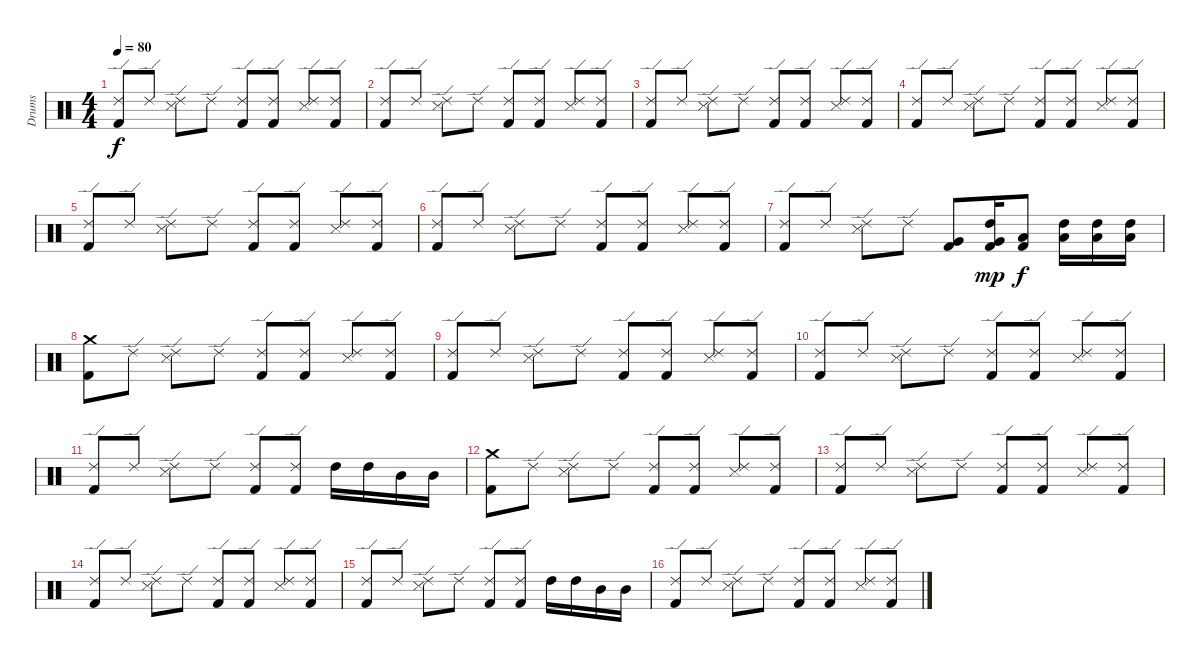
\track ("Drums" "Drums") {instrument percussion}
\staff {score}
\articulation defaults
\ts (4 4)
\tempo 80
\clef neutral
\ks c
("Ride (edge) 2" "Kick (hit) 2").8{dy f} "Ride (edge) 2".8 ("Ride (edge) 2" "Snare (side stick) 3").8 "Ride (edge) 2".8 ("Ride (edge) 2" "Kick (hit) 2").8 ("Ride (edge) 2" "Kick (hit) 2").8 ("Ride (edge) 2" "Snare (side stick) 3").8 ("Ride (edge) 2" "Kick (hit) 2").8 |
("Ride (edge) 2" "Kick (hit) 2").8 "Ride (edge) 2".8 ("Ride (edge) 2" "Snare (side stick) 3").8 "Ride (edge) 2".8 ("Ride (edge) 2" "Kick (hit) 2").8 ("Ride (edge) 2" "Kick (hit) 2").8 ("Ride (edge) 2" "Snare (side stick) 3").8 ("Ride (edge) 2" "Kick (hit) 2").8 |
("Ride (edge) 2" "Kick (hit) 2").8 "Ride (edge) 2".8 ("Ride (edge) 2" "Snare (side stick) 3").8 "Ride (edge) 2".8 ("Ride (edge) 2" "Kick (hit) 2").8 ("Ride (edge) 2" "Kick (hit) 2").8 ("Ride (edge) 2" "Snare (side stick) 3").8 ("Ride (edge) 2" "Kick (hit) 2").8 |
("Ride (edge) 2" "Kick (hit) 2").8 "Ride (edge) 2".8 ("Ride (edge) 2" "Snare (side stick) 3").8 "Ride (edge) 2".8 ("Ride (edge) 2" "Kick (hit) 2").8 ("Ride (edge) 2" "Kick (hit) 2").8 ("Ride (edge) 2" "Snare (side stick) 3").8 ("Ride (edge) 2" "Kick (hit) 2").8 |
("Ride (edge) 2" "Kick (hit) 2").8 "Ride (edge) 2".8 ("Ride (edge) 2" "Snare (side stick) 3").8 "Ride (edge) 2".8 ("Ride (edge) 2" "Kick (hit) 2").8 ("Ride (edge) 2" "Kick (hit) 2").8 ("Ride (edge) 2" "Snare (side stick) 3").8 ("Ride (edge) 2" "Kick (hit) 2").8 |
("Ride (edge) 2" "Kick (hit) 2").8 "Ride (edge) 2".8 ("Ride (edge) 2" "Snare (side stick) 3").8 "Ride (edge) 2".8 ("Ride (edge) 2" "Kick (hit) 2").8 ("Ride (edge) 2" "Kick (hit) 2").8 ("Ride (edge) 2" "Snare (side stick) 3").8 ("Ride (edge) 2" "Kick (hit) 2").8 |
("Ride (edge) 2" "Kick (hit) 2").8 "Ride (edge) 2".8 ("Ride (edge) 2" "Snare (side stick) 3").8 "Ride (edge) 2".8 ("Very Low Tom (hit)" "Kick (hit) 2").8 ("Very Low Tom (hit)" "High Tom (hit)" "Kick (hit) 2").16{dy mp} ("Low Tom (hit)" "Kick (hit) 2").8{dy f} ("Low Tom (hit)" "High Tom (hit)").16 ("Low Tom (hit)" "High Tom (hit)").16 ("Low Tom (hit)" "High Tom (hit)").16 |
("Crash medium (hit)" "Kick (hit) 2").8 "Ride (edge) 2".8 ("Ride (edge) 2" "Snare (side stick) 3").8 "Ride (edge) 2".8 ("Ride (edge) 2" "Kick (hit) 2").8 ("Ride (edge) 2" "Kick (hit) 2").8 ("Ride (edge) 2" "Snare (side stick) 3").8 ("Ride (edge) 2" "Kick (hit) 2").8 |
("Ride (edge) 2" "Kick (hit) 2").8 "Ride (edge) 2".8 ("Ride (edge) 2" "Snare (side stick) 3").8 "Ride (edge) 2".8 ("Ride (edge) 2" "Kick (hit) 2").8 ("Ride (edge) 2" "Kick (hit) 2").8 ("Ride (edge) 2" "Snare (side stick) 3").8 ("Ride (edge) 2" "Kick (hit) 2").8 |
("Ride (edge) 2" "Kick (hit) 2").8 "Ride (edge) 2".8 ("Ride (edge) 2" "Snare (side stick) 3").8 "Ride (edge) 2".8 ("Ride (edge) 2" "Kick (hit) 2").8 ("Ride (edge) 2" "Kick (hit) 2").8 ("Ride (edge) 2" "Snare (side stick) 3").8 ("Ride (edge) 2" "Kick (hit) 2").8 |
("Ride (edge) 2" "Kick (hit) 2").8 "Ride (edge) 2".8 ("Ride (edge) 2" "Snare (side stick) 3").8 "Ride (edge) 2".8 ("Ride (edge) 2" "Kick (hit) 2").8 ("Ride (edge) 2" "Kick (hit) 2").8 "High Tom (hit)".16 "High Tom (hit)".16 "Mid Tom (hit)".16 "Mid Tom (hit)".16 |
("Crash medium (hit)" "Kick (hit) 2").8 "Ride (edge) 2".8 ("Ride (edge) 2" "Snare (side stick) 3").8 "Ride (edge) 2".8 ("Ride (edge) 2" "Kick (hit) 2").8 ("Ride (edge) 2" "Kick (hit) 2").8 ("Ride (edge) 2" "Snare (side stick) 3").8 ("Ride (edge) 2" "Kick (hit) 2").8 |
("Ride (edge) 2" "Kick (hit) 2").8 "Ride (edge) 2".8 ("Ride (edge) 2" "Snare (side stick) 3").8 "Ride (edge) 2".8 ("Ride (edge) 2" "Kick (hit) 2").8 ("Ride (edge) 2" "Kick (hit) 2").8 ("Ride (edge) 2" "Snare (side stick) 3").8 ("Ride (edge) 2" "Kick (hit) 2").8 |
("Ride (edge) 2" "Kick (hit) 2").8 "Ride (edge) 2".8 ("Ride (edge) 2" "Snare (side stick) 3").8 "Ride (edge) 2".8 ("Ride (edge) 2" "Kick (hit) 2").8 ("Ride (edge) 2" "Kick (hit) 2").8 ("Ride (edge) 2" "Snare (side stick) 3").8 ("Ride (edge) 2" "Kick (hit) 2").8 |
("Ride (edge) 2" "Kick (hit) 2").8 "Ride (edge) 2".8 ("Ride (edge) 2" "Snare (side stick) 3").8 "Ride (edge) 2".8 ("Ride (edge) 2" "Kick (hit) 2").8 ("Ride (edge) 2" "Kick (hit) 2").8 "High Tom (hit)".16 "High Tom (hit)".16 "Mid Tom (hit)".16 "Mid Tom (hit)".16 |
("Ride (edge) 2" "Kick (hit) 2").8 "Ride (edge) 2".8 ("Ride (edge) 2" "Snare (side stick) 3").8 "Ride (edge) 2".8 ("Ride (edge) 2" "Kick (hit) 2").8 ("Ride (edge) 2" "Kick (hit) 2").8 ("Ride (edge) 2" "Snare (side stick) 3").8 ("Ride (edge) 2" "Kick (hit) 2").8
